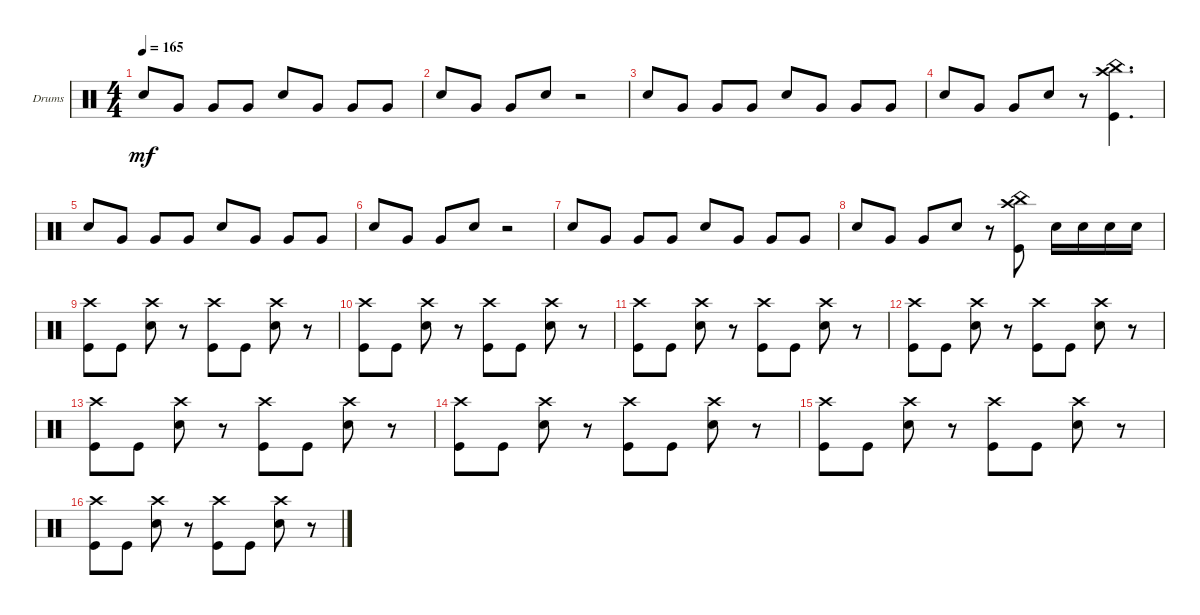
\defaultSystemsLayout 4
\bracketExtendMode groupsimilarinstruments
\firstSystemTrackNameOrientation horizontal
\otherSystemsTrackNameOrientation horizontal
\track ("Drumkit" "Drums") {instrument percussion}
\staff {score}
\articulation defaults
\ts (4 4)
\tempo 165
\clef neutral
\ks c "Snare (hit) 2".8{dy mf} "Very Low Tom (hit)".8 "Very Low Tom (hit)".8 "Very Low Tom (hit)".8 "Snare (hit) 2".8 "Very Low Tom (hit)".8 "Very Low Tom (hit)".8 "Very Low Tom (hit)".8
|
"Snare (hit) 2".8 "Very Low Tom (hit)".8 "Very Low Tom (hit)".8 "Snare (hit) 2".8 r.2 |
"Snare (hit) 2".8 "Very Low Tom (hit)".8 "Very Low Tom (hit)".8 "Very Low Tom (hit)".8 "Snare (hit) 2".8 "Very Low Tom (hit)".8 "Very Low Tom (hit)".8 "Very Low Tom (hit)".8 |
"Snare (hit) 2".8 "Very Low Tom (hit)".8 "Very Low Tom (hit)".8 "Snare (hit) 2".8 r.8 ("Kick (hit)" "Crash high (hit)" "China (hit)").4{d} |
"Snare (hit) 2".8 "Very Low Tom (hit)".8 "Very Low Tom (hit)".8 "Very Low Tom (hit)".8 "Snare (hit) 2".8 "Very Low Tom (hit)".8 "Very Low Tom (hit)".8 "Very Low Tom (hit)".8 |
"Snare (hit) 2".8 "Very Low Tom (hit)".8 "Very Low Tom (hit)".8 "Snare (hit) 2".8 r.2 |
"Snare (hit) 2".8 "Very Low Tom (hit)".8 "Very Low Tom (hit)".8 "Very Low Tom (hit)".8 "Snare (hit) 2".8 "Very Low Tom (hit)".8 "Very Low Tom (hit)".8 "Very Low Tom (hit)".8 |
"Snare (hit) 2".8 "Very Low Tom (hit)".8 "Very Low Tom (hit)".8 "Snare (hit) 2".8 r.8 ("Kick (hit)" "Crash high (hit)" "China (hit)").8 "Snare (hit) 2".16 "Snare (hit) 2".16 "Snare (hit) 2".16 "Snare (hit) 2".16 |
("Kick (hit)" "Crash high (hit)").8 "Kick (hit)".8 ("Snare (hit) 2" "Crash high (hit)").8 r.8 ("Kick (hit)" "Crash high (hit)").8 "Kick (hit)".8 ("Snare (hit) 2" "Crash high (hit)").8 r.8 |
("Kick (hit)" "Crash high (hit)").8 "Kick (hit)".8 ("Snare (hit) 2" "Crash high (hit)").8 r.8 ("Kick (hit)" "Crash high (hit)").8 "Kick (hit)".8 ("Snare (hit) 2" "Crash high (hit)").8 r.8 |
("Kick (hit)" "Crash high (hit)").8 "Kick (hit)".8 ("Snare (hit) 2" "Crash high (hit)").8 r.8 ("Kick (hit)" "Crash high (hit)").8 "Kick (hit)".8 ("Snare (hit) 2" "Crash high (hit)").8 r.8 |
("Kick (hit)" "Crash high (hit)").8 "Kick (hit)".8 ("Snare (hit) 2" "Crash high (hit)").8 r.8 ("Kick (hit)" "Crash high (hit)").8 "Kick (hit)".8 ("Snare (hit) 2" "Crash high (hit)").8 r.8 |
("Kick (hit)" "Crash high (hit)").8 "Kick (hit)".8 ("Snare (hit) 2" "Crash high (hit)").8 r.8 ("Kick (hit)" "Crash high (hit)").8 "Kick (hit)".8 ("Snare (hit) 2" "Crash high (hit)").8 r.8 |
("Kick (hit)" "Crash high (hit)").8 "Kick (hit)".8 ("Snare (hit) 2" "Crash high (hit)").8 r.8 ("Kick (hit)" "Crash high (hit)").8 "Kick (hit)".8 ("Snare (hit) 2" "Crash high (hit)").8 r.8 |
("Kick (hit)" "Crash high (hit)").8 "Kick (hit)".8 ("Snare (hit) 2" "Crash high (hit)").8 r.8 ("Kick (hit)" "Crash high (hit)").8 "Kick (hit)".8 ("Snare (hit) 2" "Crash high (hit)").8 r.8 |
("Kick (hit)" "Crash high (hit)").8 "Kick (hit)".8 ("Snare (hit) 2" "Crash high (hit)").8 r.8 ("Kick (hit)" "Crash high (hit)").8 "Kick (hit)".8 ("Snare (hit) 2" "Crash high (hit)").8 r.8
